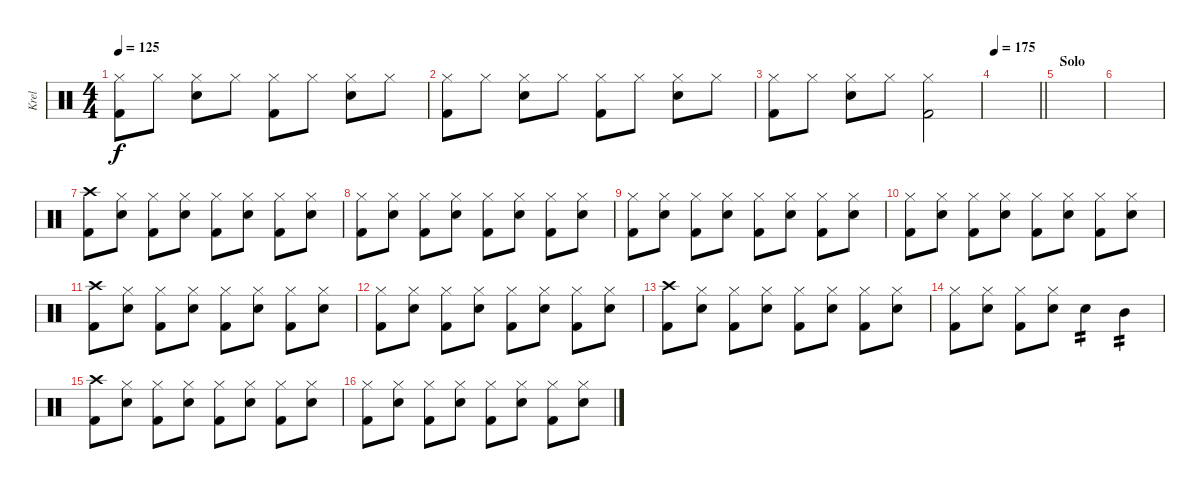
\track ("Krel" "Krel") {instrument percussion}
\staff {score}
\articulation defaults
\ts (4 4)
\tempo 125
\clef neutral
\ks c
("Hi-Hat (closed)" "Kick (hit) 2").8{dy f} "Hi-Hat (closed)".8 ("Hi-Hat (closed)" "Snare (hit) 2").8 "Hi-Hat (closed)".8 ("Hi-Hat (closed)" "Kick (hit) 2").8 "Hi-Hat (closed)".8 ("Hi-Hat (closed)" "Snare (hit) 2").8 "Hi-Hat (closed)".8 |
("Hi-Hat (closed)" "Kick (hit) 2").8 "Hi-Hat (closed)".8 ("Hi-Hat (closed)" "Snare (hit) 2").8 "Hi-Hat (closed)".8 ("Hi-Hat (closed)" "Kick (hit) 2").8 "Hi-Hat (closed)".8 ("Hi-Hat (closed)" "Snare (hit) 2").8 "Hi-Hat (closed)".8 |
("Hi-Hat (closed)" "Kick (hit) 2").8 "Hi-Hat (closed)".8 ("Hi-Hat (closed)" "Snare (hit) 2").8 "Hi-Hat (closed)".8 ("Hi-Hat (closed)" "Kick (hit) 2").2 |
\tempo 175
\barLineRight lightlight
|
\section ("" "Solo")
|
|
("Crash high (hit)" "Kick (hit) 2").8 ("Hi-Hat (closed)" "Snare (hit) 2").8 ("Hi-Hat (closed)" "Kick (hit) 2").8 ("Hi-Hat (closed)" "Snare (hit) 2").8 ("Hi-Hat (closed)" "Kick (hit) 2").8 ("Hi-Hat (closed)" "Snare (hit) 2").8 ("Hi-Hat (closed)" "Kick (hit) 2").8 ("Hi-Hat (closed)" "Snare (hit) 2").8 |
("Hi-Hat (closed)" "Kick (hit) 2").8 ("Hi-Hat (closed)" "Snare (hit) 2").8 ("Hi-Hat (closed)" "Kick (hit) 2").8 ("Hi-Hat (closed)" "Snare (hit) 2").8 ("Hi-Hat (closed)" "Kick (hit) 2").8 ("Hi-Hat (closed)" "Snare (hit) 2").8 ("Hi-Hat (closed)" "Kick (hit) 2").8 ("Hi-Hat (closed)" "Snare (hit) 2").8 |
("Hi-Hat (closed)" "Kick (hit) 2").8 ("Hi-Hat (closed)" "Snare (hit) 2").8 ("Hi-Hat (closed)" "Kick (hit) 2").8 ("Hi-Hat (closed)" "Snare (hit) 2").8 ("Hi-Hat (closed)" "Kick (hit) 2").8 ("Hi-Hat (closed)" "Snare (hit) 2").8 ("Hi-Hat (closed)" "Kick (hit) 2").8 ("Hi-Hat (closed)" "Snare (hit) 2").8 |
("Hi-Hat (closed)" "Kick (hit) 2").8 ("Hi-Hat (closed)" "Snare (hit) 2").8 ("Hi-Hat (closed)" "Kick (hit) 2").8 ("Hi-Hat (closed)" "Snare (hit) 2").8 ("Hi-Hat (closed)" "Kick (hit) 2").8 ("Hi-Hat (closed)" "Snare (hit) 2").8 ("Hi-Hat (closed)" "Kick (hit) 2").8 ("Hi-Hat (closed)" "Snare (hit) 2").8 |
("Crash high (hit)" "Kick (hit) 2").8 ("Hi-Hat (closed)" "Snare (hit) 2").8 ("Hi-Hat (closed)" "Kick (hit) 2").8 ("Hi-Hat (closed)" "Snare (hit) 2").8 ("Hi-Hat (closed)" "Kick (hit) 2").8 ("Hi-Hat (closed)" "Snare (hit) 2").8 ("Hi-Hat (closed)" "Kick (hit) 2").8 ("Hi-Hat (closed)" "Snare (hit) 2").8 |
("Hi-Hat (closed)" "Kick (hit) 2").8 ("Hi-Hat (closed)" "Snare (hit) 2").8 ("Hi-Hat (closed)" "Kick (hit) 2").8 ("Hi-Hat (closed)" "Snare (hit) 2").8 ("Hi-Hat (closed)" "Kick (hit) 2").8 ("Hi-Hat (closed)" "Snare (hit) 2").8 ("Hi-Hat (closed)" "Kick (hit) 2").8 ("Hi-Hat (closed)" "Snare (hit) 2").8 |
("Crash high (hit)" "Kick (hit) 2").8 ("Hi-Hat (closed)" "Snare (hit) 2").8 ("Hi-Hat (closed)" "Kick (hit) 2").8 ("Hi-Hat (closed)" "Snare (hit) 2").8 ("Hi-Hat (closed)" "Kick (hit) 2").8 ("Hi-Hat (closed)" "Snare (hit) 2").8 ("Hi-Hat (closed)" "Kick (hit) 2").8 ("Hi-Hat (closed)" "Snare (hit) 2").8 |
("Hi-Hat (closed)" "Kick (hit) 2").8 ("Hi-Hat (closed)" "Snare (hit) 2").8 ("Hi-Hat (closed)" "Kick (hit) 2").8 ("Hi-Hat (closed)" "Snare (hit) 2").8 "Snare (hit) 2".4{tp 2} "Mid Tom (hit)".4{tp 2} |
("Crash high (hit)" "Kick (hit) 2").8 ("Hi-Hat (closed)" "Snare (hit) 2").8 ("Hi-Hat (closed)" "Kick (hit) 2").8 ("Hi-Hat (closed)" "Snare (hit) 2").8 ("Hi-Hat (closed)" "Kick (hit) 2").8 ("Hi-Hat (closed)" "Snare (hit) 2").8 ("Hi-Hat (closed)" "Kick (hit) 2").8 ("Hi-Hat (closed)" "Snare (hit) 2").8 |
("Hi-Hat (closed)" "Kick (hit) 2").8 ("Hi-Hat (closed)" "Snare (hit) 2").8 ("Hi-Hat (closed)" "Kick (hit) 2").8 ("Hi-Hat (closed)" "Snare (hit) 2").8 ("Hi-Hat (closed)" "Kick (hit) 2").8 ("Hi-Hat (closed)" "Snare (hit) 2").8 ("Hi-Hat (closed)" "Kick (hit) 2").8 ("Hi-Hat (closed)" "Snare (hit) 2").8
